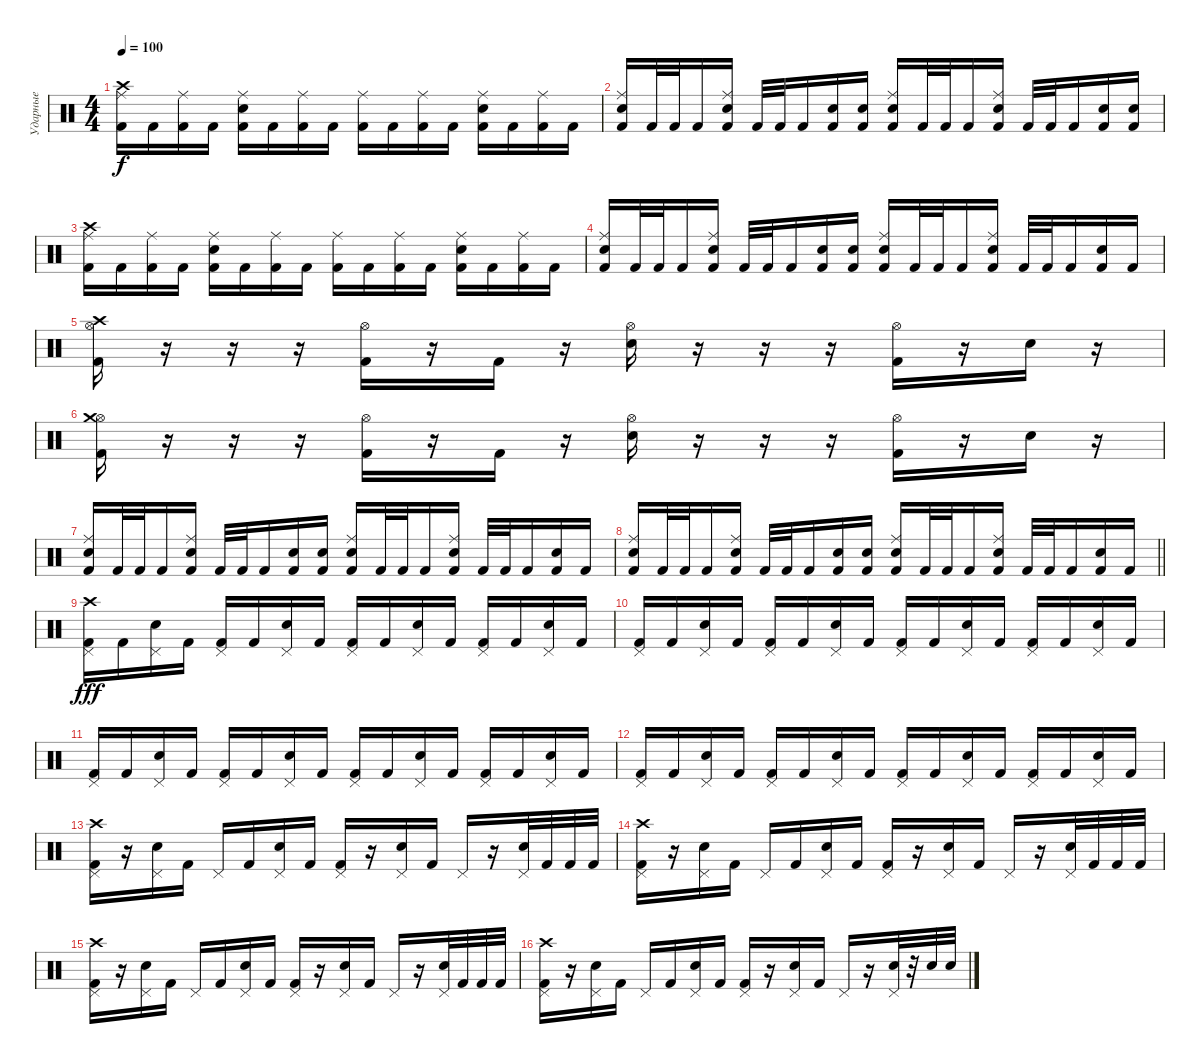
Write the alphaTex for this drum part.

\track ("Ударные" "Ударные") {instrument percussion}
\staff {score}
\articulation defaults
\ts (4 4)
\tempo 100
\clef neutral
\ks c
("Crash high (hit)" "Kick (hit) 2" "Ride (middle)").16{dy f} "Kick (hit) 2".16 ("Kick (hit) 2" "Ride (middle)").16 "Kick (hit) 2".16 ("Snare (hit) 2" "Kick (hit) 2" "Ride (middle)").16 "Kick (hit) 2".16 ("Kick (hit) 2" "Ride (middle)").16 "Kick (hit) 2".16 ("Kick (hit) 2" "Ride (middle)").16 "Kick (hit) 2".16 ("Kick (hit) 2" "Ride (middle)").16 "Kick (hit) 2".16 ("Snare (hit) 2" "Kick (hit) 2" "Ride (middle)").16 "Kick (hit) 2".16 ("Kick (hit) 2" "Ride (middle)").16 "Kick (hit) 2".16 |
("Kick (hit) 2" "Snare (hit) 2" "Ride (middle)").16 "Kick (hit) 2".32 "Kick (hit) 2".32 "Kick (hit) 2".16 ("Kick (hit) 2" "Snare (hit) 2" "Ride (middle)").16 "Kick (hit) 2".32 "Kick (hit) 2".32 "Kick (hit) 2".16 ("Kick (hit) 2" "Snare (hit) 2").16 ("Kick (hit) 2" "Snare (hit) 2").16 ("Kick (hit) 2" "Snare (hit) 2" "Ride (middle)").16 "Kick (hit) 2".32 "Kick (hit) 2".32 "Kick (hit) 2".16 ("Kick (hit) 2" "Snare (hit) 2" "Ride (middle)").16 "Kick (hit) 2".32 "Kick (hit) 2".32 "Kick (hit) 2".16 ("Kick (hit) 2" "Snare (hit) 2").16 ("Kick (hit) 2" "Snare (hit) 2").16 |
("Crash high (hit)" "Kick (hit) 2" "Ride (middle)").16 "Kick (hit) 2".16 ("Kick (hit) 2" "Ride (middle)").16 "Kick (hit) 2".16 ("Snare (hit) 2" "Kick (hit) 2" "Ride (middle)").16 "Kick (hit) 2".16 ("Kick (hit) 2" "Ride (middle)").16 "Kick (hit) 2".16 ("Kick (hit) 2" "Ride (middle)").16 "Kick (hit) 2".16 ("Kick (hit) 2" "Ride (middle)").16 "Kick (hit) 2".16 ("Snare (hit) 2" "Kick (hit) 2" "Ride (middle)").16 "Kick (hit) 2".16 ("Kick (hit) 2" "Ride (middle)").16 "Kick (hit) 2".16 |
("Kick (hit) 2" "Snare (hit) 2" "Ride (middle)").16 "Kick (hit) 2".32 "Kick (hit) 2".32 "Kick (hit) 2".16 ("Kick (hit) 2" "Snare (hit) 2" "Ride (middle)").16 "Kick (hit) 2".32 "Kick (hit) 2".32 "Kick (hit) 2".16 ("Kick (hit) 2" "Snare (hit) 2").16 ("Kick (hit) 2" "Snare (hit) 2").16 ("Kick (hit) 2" "Snare (hit) 2" "Ride (middle)").16 "Kick (hit) 2".32 "Kick (hit) 2".32 "Kick (hit) 2".16 ("Kick (hit) 2" "Snare (hit) 2" "Ride (middle)").16 "Kick (hit) 2".32 "Kick (hit) 2".32 "Kick (hit) 2".16 ("Kick (hit) 2" "Snare (hit) 2").16 "Kick (hit) 2".16 |
("Kick (hit) 2" "Hi-Hat (open)" "Crash high (hit)").16 r.16 r.16 r.16 ("Kick (hit) 2" "Hi-Hat (open)").16 r.16 "Kick (hit) 2".16 r.16 ("Snare (hit) 2" "Hi-Hat (open)").16 r.16 r.16 r.16 ("Kick (hit) 2" "Hi-Hat (open)").16 r.16 "Snare (hit) 2".16 r.16 |
("Kick (hit) 2" "Hi-Hat (open)" "Crash medium (hit)").16 r.16 r.16 r.16 ("Kick (hit) 2" "Hi-Hat (open)").16 r.16 "Kick (hit) 2".16 r.16 ("Snare (hit) 2" "Hi-Hat (open)").16 r.16 r.16 r.16 ("Kick (hit) 2" "Hi-Hat (open)").16 r.16 "Snare (hit) 2".16 r.16 |
("Kick (hit) 2" "Snare (hit) 2" "Ride (middle)").16 "Kick (hit) 2".32 "Kick (hit) 2".32 "Kick (hit) 2".16 ("Kick (hit) 2" "Snare (hit) 2" "Ride (middle)").16 "Kick (hit) 2".32 "Kick (hit) 2".32 "Kick (hit) 2".16 ("Kick (hit) 2" "Snare (hit) 2").16 ("Kick (hit) 2" "Snare (hit) 2").16 ("Kick (hit) 2" "Snare (hit) 2" "Ride (middle)").16 "Kick (hit) 2".32 "Kick (hit) 2".32 "Kick (hit) 2".16 ("Kick (hit) 2" "Snare (hit) 2" "Ride (middle)").16 "Kick (hit) 2".32 "Kick (hit) 2".32 "Kick (hit) 2".16 ("Kick (hit) 2" "Snare (hit) 2").16 "Kick (hit) 2".16 |
\barLineRight lightlight
("Kick (hit) 2" "Snare (hit) 2" "Ride (middle)").16 "Kick (hit) 2".32 "Kick (hit) 2".32 "Kick (hit) 2".16 ("Kick (hit) 2" "Snare (hit) 2" "Ride (middle)").16 "Kick (hit) 2".32 "Kick (hit) 2".32 "Kick (hit) 2".16 ("Kick (hit) 2" "Snare (hit) 2").16 ("Kick (hit) 2" "Snare (hit) 2").16 ("Kick (hit) 2" "Snare (hit) 2" "Ride (middle)").16 "Kick (hit) 2".32 "Kick (hit) 2".32 "Kick (hit) 2".16 ("Kick (hit) 2" "Snare (hit) 2" "Ride (middle)").16 "Kick (hit) 2".32 "Kick (hit) 2".32 "Kick (hit) 2".16 ("Kick (hit) 2" "Snare (hit) 2").16 "Kick (hit) 2".16 |
("Kick (hit) 2" "Crash high (hit)" "Pedal Hi-Hat (hit)").16{dy fff} "Kick (hit) 2".16 ("Snare (hit) 2" "Pedal Hi-Hat (hit)").16 "Kick (hit) 2".16 ("Kick (hit) 2" "Pedal Hi-Hat (hit)").16 "Kick (hit) 2".16 ("Snare (hit) 2" "Pedal Hi-Hat (hit)").16 "Kick (hit) 2".16 ("Kick (hit) 2" "Pedal Hi-Hat (hit)").16 "Kick (hit) 2".16 ("Snare (hit) 2" "Pedal Hi-Hat (hit)").16 "Kick (hit) 2".16 ("Kick (hit) 2" "Pedal Hi-Hat (hit)").16 "Kick (hit) 2".16 ("Snare (hit) 2" "Pedal Hi-Hat (hit)").16 "Kick (hit) 2".16 |
("Kick (hit) 2" "Pedal Hi-Hat (hit)").16 "Kick (hit) 2".16 ("Snare (hit) 2" "Pedal Hi-Hat (hit)").16 "Kick (hit) 2".16 ("Kick (hit) 2" "Pedal Hi-Hat (hit)").16 "Kick (hit) 2".16 ("Snare (hit) 2" "Pedal Hi-Hat (hit)").16 "Kick (hit) 2".16 ("Kick (hit) 2" "Pedal Hi-Hat (hit)").16 "Kick (hit) 2".16 ("Snare (hit) 2" "Pedal Hi-Hat (hit)").16 "Kick (hit) 2".16 ("Kick (hit) 2" "Pedal Hi-Hat (hit)").16 "Kick (hit) 2".16 ("Snare (hit) 2" "Pedal Hi-Hat (hit)").16 "Kick (hit) 2".16 |
("Kick (hit) 2" "Pedal Hi-Hat (hit)").16 "Kick (hit) 2".16 ("Snare (hit) 2" "Pedal Hi-Hat (hit)").16 "Kick (hit) 2".16 ("Kick (hit) 2" "Pedal Hi-Hat (hit)").16 "Kick (hit) 2".16 ("Snare (hit) 2" "Pedal Hi-Hat (hit)").16 "Kick (hit) 2".16 ("Kick (hit) 2" "Pedal Hi-Hat (hit)").16 "Kick (hit) 2".16 ("Snare (hit) 2" "Pedal Hi-Hat (hit)").16 "Kick (hit) 2".16 ("Kick (hit) 2" "Pedal Hi-Hat (hit)").16 "Kick (hit) 2".16 ("Snare (hit) 2" "Pedal Hi-Hat (hit)").16 "Kick (hit) 2".16 |
("Kick (hit) 2" "Pedal Hi-Hat (hit)").16 "Kick (hit) 2".16 ("Snare (hit) 2" "Pedal Hi-Hat (hit)").16 "Kick (hit) 2".16 ("Kick (hit) 2" "Pedal Hi-Hat (hit)").16 "Kick (hit) 2".16 ("Snare (hit) 2" "Pedal Hi-Hat (hit)").16 "Kick (hit) 2".16 ("Kick (hit) 2" "Pedal Hi-Hat (hit)").16 "Kick (hit) 2".16 ("Snare (hit) 2" "Pedal Hi-Hat (hit)").16 "Kick (hit) 2".16 ("Kick (hit) 2" "Pedal Hi-Hat (hit)").16 "Kick (hit) 2".16 ("Snare (hit) 2" "Pedal Hi-Hat (hit)").16 "Kick (hit) 2".16 |
("Pedal Hi-Hat (hit)" "Crash high (hit)" "Kick (hit) 2").16 r.16 ("Pedal Hi-Hat (hit)" "Snare (hit) 2").16 "Kick (hit) 2".16 "Pedal Hi-Hat (hit)".16 "Kick (hit) 2".16 ("Pedal Hi-Hat (hit)" "Snare (hit) 2").16 "Kick (hit) 2".16 ("Pedal Hi-Hat (hit)" "Kick (hit) 2").16 r.16 ("Pedal Hi-Hat (hit)" "Snare (hit) 2").16 "Kick (hit) 2".16 "Pedal Hi-Hat (hit)".16 r.16 ("Pedal Hi-Hat (hit)" "Snare (hit) 2").32 "Kick (hit) 2".32 "Kick (hit) 2".32 "Kick (hit) 2".32 |
("Pedal Hi-Hat (hit)" "Crash high (hit)" "Kick (hit) 2").16 r.16 ("Pedal Hi-Hat (hit)" "Snare (hit) 2").16 "Kick (hit) 2".16 "Pedal Hi-Hat (hit)".16 "Kick (hit) 2".16 ("Pedal Hi-Hat (hit)" "Snare (hit) 2").16 "Kick (hit) 2".16 ("Pedal Hi-Hat (hit)" "Kick (hit) 2").16 r.16 ("Pedal Hi-Hat (hit)" "Snare (hit) 2").16 "Kick (hit) 2".16 "Pedal Hi-Hat (hit)".16 r.16 ("Pedal Hi-Hat (hit)" "Snare (hit) 2").32 "Kick (hit) 2".32 "Kick (hit) 2".32 "Kick (hit) 2".32 |
("Pedal Hi-Hat (hit)" "Crash high (hit)" "Kick (hit) 2").16 r.16 ("Pedal Hi-Hat (hit)" "Snare (hit) 2").16 "Kick (hit) 2".16 "Pedal Hi-Hat (hit)".16 "Kick (hit) 2".16 ("Pedal Hi-Hat (hit)" "Snare (hit) 2").16 "Kick (hit) 2".16 ("Pedal Hi-Hat (hit)" "Kick (hit) 2").16 r.16 ("Pedal Hi-Hat (hit)" "Snare (hit) 2").16 "Kick (hit) 2".16 "Pedal Hi-Hat (hit)".16 r.16 ("Pedal Hi-Hat (hit)" "Snare (hit) 2").32 "Kick (hit) 2".32 "Kick (hit) 2".32 "Kick (hit) 2".32 |
("Pedal Hi-Hat (hit)" "Crash high (hit)" "Kick (hit) 2").16 r.16 ("Pedal Hi-Hat (hit)" "Snare (hit) 2").16 "Kick (hit) 2".16 "Pedal Hi-Hat (hit)".16 "Kick (hit) 2".16 ("Pedal Hi-Hat (hit)" "Snare (hit) 2").16 "Kick (hit) 2".16 ("Pedal Hi-Hat (hit)" "Kick (hit) 2").16 r.16 ("Pedal Hi-Hat (hit)" "Snare (hit) 2").16 "Kick (hit) 2".16 "Pedal Hi-Hat (hit)".16 r.16 ("Pedal Hi-Hat (hit)" "Snare (hit) 2").32 r.32 "Snare (hit) 2".32 "Snare (hit) 2".32
